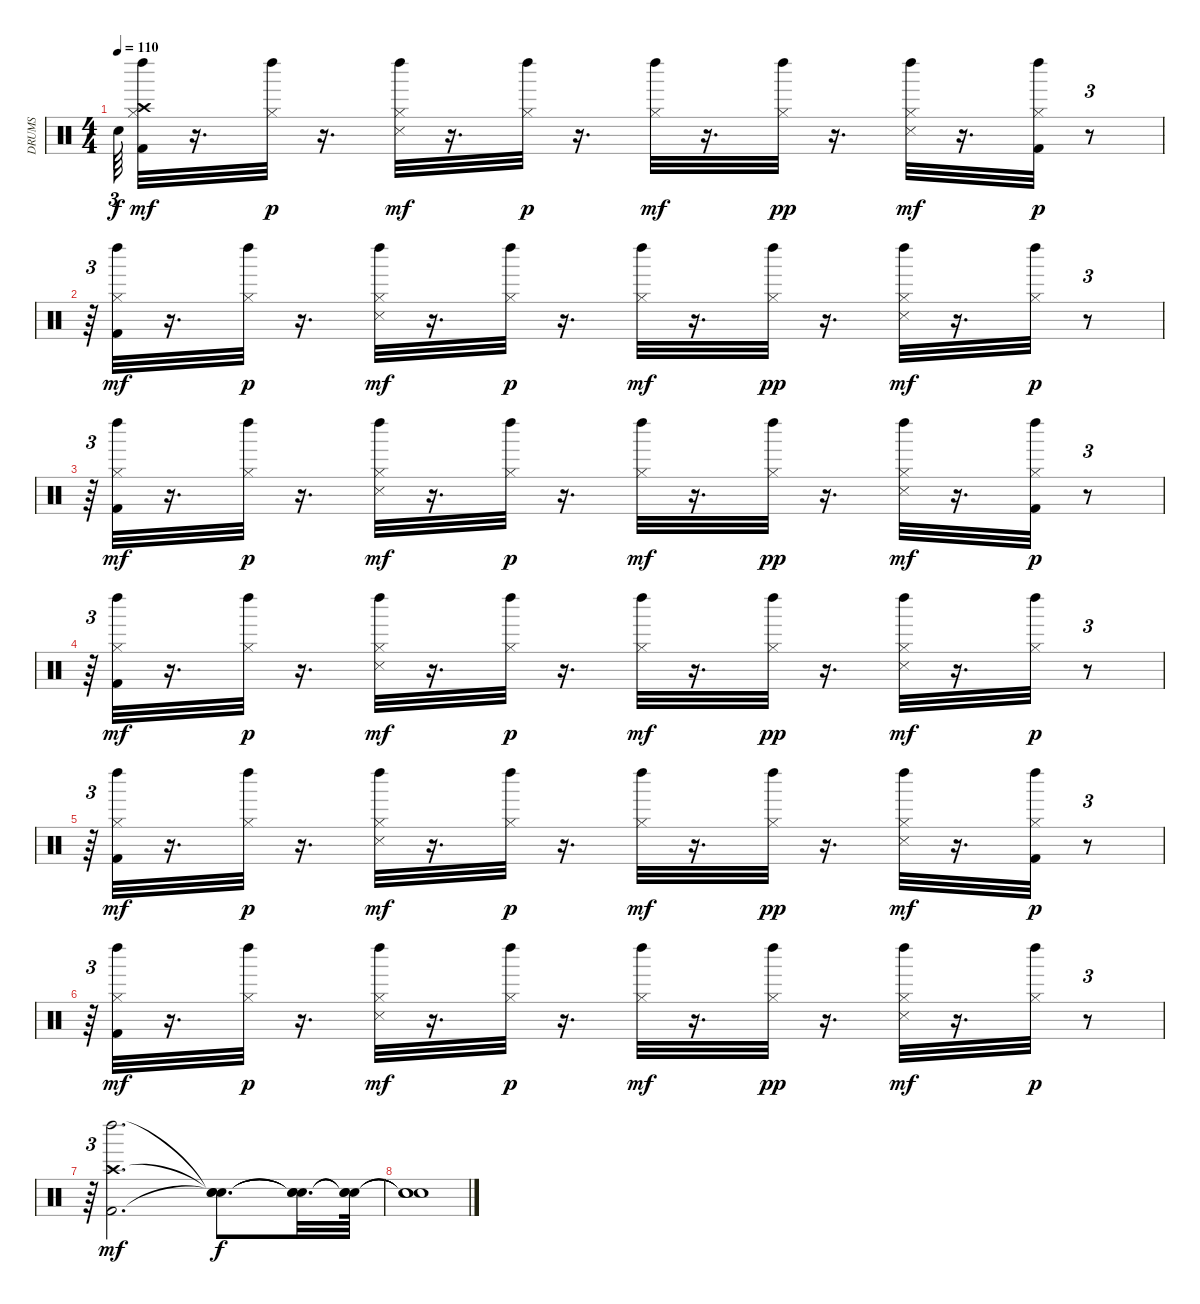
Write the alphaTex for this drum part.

\track ("DRUMS" "DRUMS") {instrument percussion}
\staff {score}
\articulation defaults
\ts (4 4)
\tempo 110
\clef neutral
\ks c "Snare (hit)"{t}.64{tu (3 2) dy f}
("Kick (hit) 2" "Hi-Hat (closed)" "Crash high (hit)" "Left Maraca (hit)").32{dy mf} r.16{d} ("Hi-Hat (closed)" "Left Maraca (hit)").32{dy p} r.16{d} ("Snare (side stick) 3" "Hi-Hat (closed)" "Left Maraca (hit)").32{dy mf} r.16{d} ("Hi-Hat (closed)" "Left Maraca (hit)").32{dy p} r.16{d} ("Hi-Hat (closed)" "Left Maraca (hit)").32{dy mf} r.16{d} ("Hi-Hat (closed)" "Left Maraca (hit)").32{dy pp} r.16{d} ("Snare (side stick) 3" "Hi-Hat (closed)" "Left Maraca (hit)").32{dy mf} r.16{d} ("Kick (hit) 2" "Hi-Hat (closed)" "Left Maraca (hit)").32{dy p} r.8{tu (3 2)} |
r.64{tu (3 2)} ("Kick (hit) 2" "Hi-Hat (closed)" "Left Maraca (hit)").32{dy mf} r.16{d} ("Hi-Hat (closed)" "Left Maraca (hit)").32{dy p} r.16{d} ("Snare (side stick) 3" "Hi-Hat (closed)" "Left Maraca (hit)").32{dy mf} r.16{d} ("Hi-Hat (closed)" "Left Maraca (hit)").32{dy p} r.16{d} ("Hi-Hat (closed)" "Left Maraca (hit)").32{dy mf} r.16{d} ("Hi-Hat (closed)" "Left Maraca (hit)").32{dy pp} r.16{d} ("Snare (side stick) 3" "Hi-Hat (closed)" "Left Maraca (hit)").32{dy mf} r.16{d} ("Hi-Hat (closed)" "Left Maraca (hit)").32{dy p} r.8{tu (3 2)} |
r.64{tu (3 2)} ("Kick (hit) 2" "Hi-Hat (closed)" "Left Maraca (hit)").32{dy mf} r.16{d} ("Hi-Hat (closed)" "Left Maraca (hit)").32{dy p} r.16{d} ("Snare (side stick) 3" "Hi-Hat (closed)" "Left Maraca (hit)").32{dy mf} r.16{d} ("Hi-Hat (closed)" "Left Maraca (hit)").32{dy p} r.16{d} ("Hi-Hat (closed)" "Left Maraca (hit)").32{dy mf} r.16{d} ("Hi-Hat (closed)" "Left Maraca (hit)").32{dy pp} r.16{d} ("Snare (side stick) 3" "Hi-Hat (closed)" "Left Maraca (hit)").32{dy mf} r.16{d} ("Kick (hit) 2" "Hi-Hat (closed)" "Left Maraca (hit)").32{dy p} r.8{tu (3 2)} |
r.64{tu (3 2)} ("Kick (hit) 2" "Hi-Hat (closed)" "Left Maraca (hit)").32{dy mf} r.16{d} ("Hi-Hat (closed)" "Left Maraca (hit)").32{dy p} r.16{d} ("Snare (side stick) 3" "Hi-Hat (closed)" "Left Maraca (hit)").32{dy mf} r.16{d} ("Hi-Hat (closed)" "Left Maraca (hit)").32{dy p} r.16{d} ("Hi-Hat (closed)" "Left Maraca (hit)").32{dy mf} r.16{d} ("Hi-Hat (closed)" "Left Maraca (hit)").32{dy pp} r.16{d} ("Snare (side stick) 3" "Hi-Hat (closed)" "Left Maraca (hit)").32{dy mf} r.16{d} ("Hi-Hat (closed)" "Left Maraca (hit)").32{dy p} r.8{tu (3 2)} |
r.64{tu (3 2)} ("Kick (hit) 2" "Hi-Hat (closed)" "Left Maraca (hit)").32{dy mf} r.16{d} ("Hi-Hat (closed)" "Left Maraca (hit)").32{dy p} r.16{d} ("Snare (side stick) 3" "Hi-Hat (closed)" "Left Maraca (hit)").32{dy mf} r.16{d} ("Hi-Hat (closed)" "Left Maraca (hit)").32{dy p} r.16{d} ("Hi-Hat (closed)" "Left Maraca (hit)").32{dy mf} r.16{d} ("Hi-Hat (closed)" "Left Maraca (hit)").32{dy pp} r.16{d} ("Snare (side stick) 3" "Hi-Hat (closed)" "Left Maraca (hit)").32{dy mf} r.16{d} ("Kick (hit) 2" "Hi-Hat (closed)" "Left Maraca (hit)").32{dy p} r.8{tu (3 2)} |
r.64{tu (3 2)} ("Kick (hit) 2" "Hi-Hat (closed)" "Left Maraca (hit)").32{dy mf} r.16{d} ("Hi-Hat (closed)" "Left Maraca (hit)").32{dy p} r.16{d} ("Snare (side stick) 3" "Hi-Hat (closed)" "Left Maraca (hit)").32{dy mf} r.16{d} ("Hi-Hat (closed)" "Left Maraca (hit)").32{dy p} r.16{d} ("Hi-Hat (closed)" "Left Maraca (hit)").32{dy mf} r.16{d} ("Hi-Hat (closed)" "Left Maraca (hit)").32{dy pp} r.16{d} ("Snare (side stick) 3" "Hi-Hat (closed)" "Left Maraca (hit)").32{dy mf} r.16{d} ("Hi-Hat (closed)" "Left Maraca (hit)").32{dy p} r.8{tu (3 2)} |
r.64{tu (3 2)} ("Kick (hit) 2" "Crash high (hit)" "Left Maraca (hit)").2{d dy mf} ("Snare (hit)"{t} "Snare (hit)"{t} "Snare (hit)"{t}).8{d dy f} ("Snare (hit)"{t} "Snare (hit)"{t} "Snare (hit)"{t}).32{d} ("Snare (hit)"{t} "Snare (hit)"{t} "Snare (hit)"{t}).64 |
("Snare (hit)"{t} "Snare (hit)"{t} "Snare (hit)"{t}).1
